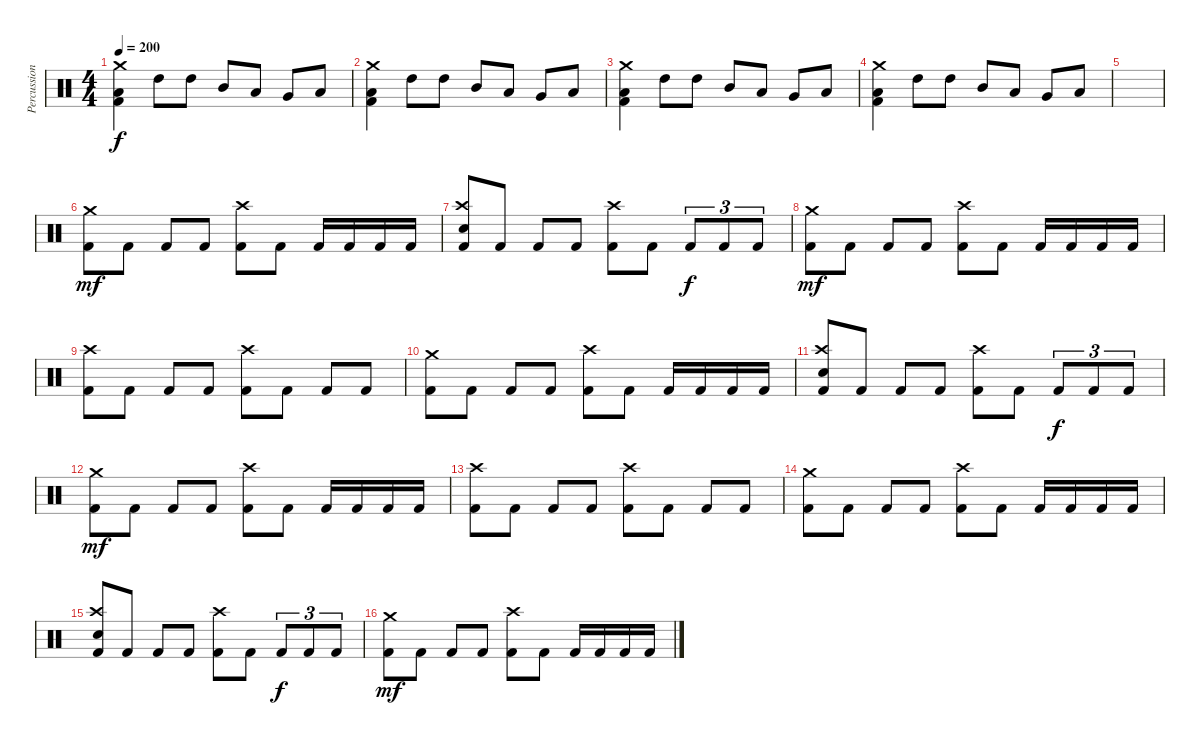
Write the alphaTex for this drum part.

\track ("Percussions" "Percussion") {instrument percussion}
\staff {score}
\articulation defaults
\ts (4 4)
\tempo 200
\clef neutral
\ks c
("Crash medium (hit)" "Low Floor Tom (hit)" "Kick (hit) 2").4{dy f} "High Tom (hit)".8 "High Tom (hit)".8 "Mid Tom (hit)".8 "Low Tom (hit)".8 "Very Low Tom (hit)".8 "Low Floor Tom (hit)".8 |
("Crash medium (hit)" "Low Floor Tom (hit)" "Kick (hit) 2").4 "High Tom (hit)".8 "High Tom (hit)".8 "Mid Tom (hit)".8 "Low Tom (hit)".8 "Very Low Tom (hit)".8 "Low Floor Tom (hit)".8 |
("Crash medium (hit)" "Low Floor Tom (hit)" "Kick (hit) 2").4 "High Tom (hit)".8 "High Tom (hit)".8 "Mid Tom (hit)".8 "Low Tom (hit)".8 "Very Low Tom (hit)".8 "Low Floor Tom (hit)".8 |
("Crash medium (hit)" "Low Floor Tom (hit)" "Kick (hit) 2").4 "High Tom (hit)".8 "High Tom (hit)".8 "Mid Tom (hit)".8 "Low Tom (hit)".8 "Very Low Tom (hit)".8 "Low Floor Tom (hit)".8 |
|
("Crash medium (hit)" "Kick (hit) 2").8{dy mf} "Kick (hit) 2".8 "Kick (hit) 2".8 "Kick (hit) 2".8 ("Crash high (hit)" "Kick (hit) 2").8 "Kick (hit) 2".8 "Kick (hit) 2".16 "Kick (hit) 2".16 "Kick (hit) 2".16 "Kick (hit) 2".16 |
("Crash high (hit)" "Electric Snare (hit)" "Kick (hit) 2").8 "Kick (hit) 2".8 "Kick (hit) 2".8 "Kick (hit) 2".8 ("Crash high (hit)" "Kick (hit) 2").8 "Kick (hit) 2".8 "Kick (hit) 2".8{tu (3 2) dy f} "Kick (hit) 2".8{tu (3 2)} "Kick (hit) 2".8{tu (3 2)} |
("Crash medium (hit)" "Kick (hit) 2").8{dy mf} "Kick (hit) 2".8 "Kick (hit) 2".8 "Kick (hit) 2".8 ("Crash high (hit)" "Kick (hit) 2").8 "Kick (hit) 2".8 "Kick (hit) 2".16 "Kick (hit) 2".16 "Kick (hit) 2".16 "Kick (hit) 2".16 |
("Crash high (hit)" "Kick (hit) 2").8 "Kick (hit) 2".8 "Kick (hit) 2".8 "Kick (hit) 2".8 ("Crash high (hit)" "Kick (hit) 2").8 "Kick (hit) 2".8 "Kick (hit) 2".8 "Kick (hit) 2".8 |
("Crash medium (hit)" "Kick (hit) 2").8 "Kick (hit) 2".8 "Kick (hit) 2".8 "Kick (hit) 2".8 ("Crash high (hit)" "Kick (hit) 2").8 "Kick (hit) 2".8 "Kick (hit) 2".16 "Kick (hit) 2".16 "Kick (hit) 2".16 "Kick (hit) 2".16 |
("Crash high (hit)" "Electric Snare (hit)" "Kick (hit) 2").8 "Kick (hit) 2".8 "Kick (hit) 2".8 "Kick (hit) 2".8 ("Crash high (hit)" "Kick (hit) 2").8 "Kick (hit) 2".8 "Kick (hit) 2".8{tu (3 2) dy f} "Kick (hit) 2".8{tu (3 2)} "Kick (hit) 2".8{tu (3 2)} |
("Crash medium (hit)" "Kick (hit) 2").8{dy mf} "Kick (hit) 2".8 "Kick (hit) 2".8 "Kick (hit) 2".8 ("Crash high (hit)" "Kick (hit) 2").8 "Kick (hit) 2".8 "Kick (hit) 2".16 "Kick (hit) 2".16 "Kick (hit) 2".16 "Kick (hit) 2".16 |
("Crash high (hit)" "Kick (hit) 2").8 "Kick (hit) 2".8 "Kick (hit) 2".8 "Kick (hit) 2".8 ("Crash high (hit)" "Kick (hit) 2").8 "Kick (hit) 2".8 "Kick (hit) 2".8 "Kick (hit) 2".8 |
("Crash medium (hit)" "Kick (hit) 2").8 "Kick (hit) 2".8 "Kick (hit) 2".8 "Kick (hit) 2".8 ("Crash high (hit)" "Kick (hit) 2").8 "Kick (hit) 2".8 "Kick (hit) 2".16 "Kick (hit) 2".16 "Kick (hit) 2".16 "Kick (hit) 2".16 |
("Crash high (hit)" "Electric Snare (hit)" "Kick (hit) 2").8 "Kick (hit) 2".8 "Kick (hit) 2".8 "Kick (hit) 2".8 ("Crash high (hit)" "Kick (hit) 2").8 "Kick (hit) 2".8 "Kick (hit) 2".8{tu (3 2) dy f} "Kick (hit) 2".8{tu (3 2)} "Kick (hit) 2".8{tu (3 2)} |
("Crash medium (hit)" "Kick (hit) 2").8{dy mf} "Kick (hit) 2".8 "Kick (hit) 2".8 "Kick (hit) 2".8 ("Crash high (hit)" "Kick (hit) 2").8 "Kick (hit) 2".8 "Kick (hit) 2".16 "Kick (hit) 2".16 "Kick (hit) 2".16 "Kick (hit) 2".16
